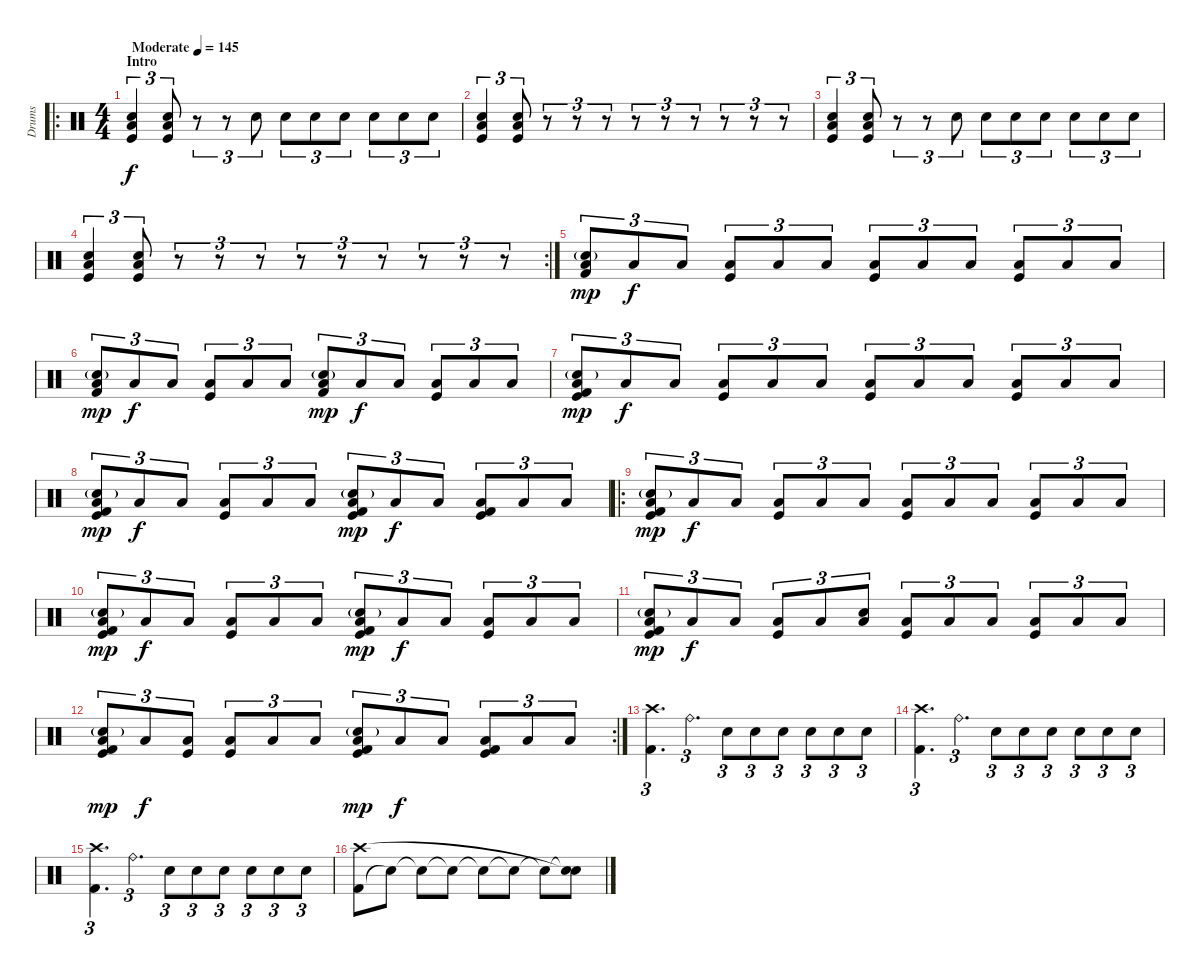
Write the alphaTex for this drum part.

\track ("Drums" "Drums") {instrument percussion}
\staff {score}
\articulation defaults
\ro
\ts (4 4)
\section ("" "Intro")
\tempo (145 "Moderate")
\clef neutral
\ks c
("Kick (hit)" "Low Floor Tom (hit)" "Electric Snare (hit)").4{tu (3 2) dy f} ("Kick (hit)" "Low Floor Tom (hit)" "Electric Snare (hit)").8{tu (3 2)} r.8{tu (3 2)} r.8{tu (3 2)} "Electric Snare (hit)".8{tu (3 2)} "Electric Snare (hit)".8{tu (3 2)} "Electric Snare (hit)".8{tu (3 2)} "Electric Snare (hit)".8{tu (3 2)} "Electric Snare (hit)".8{tu (3 2)} "Electric Snare (hit)".8{tu (3 2)} "Electric Snare (hit)".8{tu (3 2)} |
("Kick (hit)" "Low Floor Tom (hit)" "Electric Snare (hit)").4{tu (3 2)} ("Kick (hit)" "Low Floor Tom (hit)" "Electric Snare (hit)").8{tu (3 2)} r.8{tu (3 2)} r.8{tu (3 2)} r.8{tu (3 2)} r.8{tu (3 2)} r.8{tu (3 2)} r.8{tu (3 2)} r.8{tu (3 2)} r.8{tu (3 2)} r.8{tu (3 2)} |
("Kick (hit)" "Low Floor Tom (hit)" "Electric Snare (hit)").4{tu (3 2)} ("Kick (hit)" "Low Floor Tom (hit)" "Electric Snare (hit)").8{tu (3 2)} r.8{tu (3 2)} r.8{tu (3 2)} "Electric Snare (hit)".8{tu (3 2)} "Electric Snare (hit)".8{tu (3 2)} "Electric Snare (hit)".8{tu (3 2)} "Electric Snare (hit)".8{tu (3 2)} "Electric Snare (hit)".8{tu (3 2)} "Electric Snare (hit)".8{tu (3 2)} "Electric Snare (hit)".8{tu (3 2)} |
\rc 2
("Kick (hit)" "Low Floor Tom (hit)" "Electric Snare (hit)").4{tu (3 2)} ("Kick (hit)" "Low Floor Tom (hit)" "Electric Snare (hit)").8{tu (3 2)} r.8{tu (3 2)} r.8{tu (3 2)} r.8{tu (3 2)} r.8{tu (3 2)} r.8{tu (3 2)} r.8{tu (3 2)} r.8{tu (3 2)} r.8{tu (3 2)} r.8{tu (3 2)} |
("Snare (hit) 2"{g} "Kick (hit) 2" "Low Floor Tom (hit)").8{tu (3 2) dy mp} "Low Floor Tom (hit)".8{tu (3 2) dy f} "Low Floor Tom (hit)".8{tu (3 2)} ("Kick (hit)" "Low Floor Tom (hit)").8{tu (3 2)} "Low Floor Tom (hit)".8{tu (3 2)} "Low Floor Tom (hit)".8{tu (3 2)} ("Kick (hit)" "Low Floor Tom (hit)").8{tu (3 2)} "Low Floor Tom (hit)".8{tu (3 2)} "Low Floor Tom (hit)".8{tu (3 2)} ("Kick (hit)" "Low Floor Tom (hit)").8{tu (3 2)} "Low Floor Tom (hit)".8{tu (3 2)} "Low Floor Tom (hit)".8{tu (3 2)} |
("Snare (hit) 2"{g} "Kick (hit) 2" "Low Floor Tom (hit)").8{tu (3 2) dy mp} "Low Floor Tom (hit)".8{tu (3 2) dy f} "Low Floor Tom (hit)".8{tu (3 2)} ("Kick (hit)" "Low Floor Tom (hit)").8{tu (3 2)} "Low Floor Tom (hit)".8{tu (3 2)} "Low Floor Tom (hit)".8{tu (3 2)} ("Snare (hit) 2"{g} "Kick (hit) 2" "Low Floor Tom (hit)").8{tu (3 2) dy mp} "Low Floor Tom (hit)".8{tu (3 2) dy f} "Low Floor Tom (hit)".8{tu (3 2)} ("Kick (hit)" "Low Floor Tom (hit)").8{tu (3 2)} "Low Floor Tom (hit)".8{tu (3 2)} "Low Floor Tom (hit)".8{tu (3 2)} |
("Kick (hit)" "Snare (hit) 2"{g} "Kick (hit) 2" "Low Floor Tom (hit)").8{tu (3 2) dy mp} "Low Floor Tom (hit)".8{tu (3 2) dy f} "Low Floor Tom (hit)".8{tu (3 2)} ("Kick (hit)" "Low Floor Tom (hit)").8{tu (3 2)} "Low Floor Tom (hit)".8{tu (3 2)} "Low Floor Tom (hit)".8{tu (3 2)} ("Kick (hit)" "Low Floor Tom (hit)").8{tu (3 2)} "Low Floor Tom (hit)".8{tu (3 2)} "Low Floor Tom (hit)".8{tu (3 2)} ("Kick (hit)" "Low Floor Tom (hit)").8{tu (3 2)} "Low Floor Tom (hit)".8{tu (3 2)} "Low Floor Tom (hit)".8{tu (3 2)} |
("Kick (hit)" "Snare (hit) 2"{g} "Kick (hit) 2" "Low Floor Tom (hit)").8{tu (3 2) dy mp} "Low Floor Tom (hit)".8{tu (3 2) dy f} "Low Floor Tom (hit)".8{tu (3 2)} ("Kick (hit)" "Low Floor Tom (hit)").8{tu (3 2)} "Low Floor Tom (hit)".8{tu (3 2)} "Low Floor Tom (hit)".8{tu (3 2)} ("Kick (hit)" "Snare (hit) 2"{g} "Kick (hit) 2" "Low Floor Tom (hit)").8{tu (3 2) dy mp} "Low Floor Tom (hit)".8{tu (3 2) dy f} "Low Floor Tom (hit)".8{tu (3 2)} ("Kick (hit)" "Kick (hit) 2" "Low Floor Tom (hit)").8{tu (3 2)} "Low Floor Tom (hit)".8{tu (3 2)} "Low Floor Tom (hit)".8{tu (3 2)} |
\ro
("Kick (hit)" "Snare (hit) 2"{g} "Kick (hit) 2" "Low Floor Tom (hit)").8{tu (3 2) dy mp} "Low Floor Tom (hit)".8{tu (3 2) dy f} "Low Floor Tom (hit)".8{tu (3 2)} ("Kick (hit)" "Low Floor Tom (hit)").8{tu (3 2)} "Low Floor Tom (hit)".8{tu (3 2)} "Low Floor Tom (hit)".8{tu (3 2)} ("Kick (hit)" "Low Floor Tom (hit)").8{tu (3 2)} "Low Floor Tom (hit)".8{tu (3 2)} "Low Floor Tom (hit)".8{tu (3 2)} ("Kick (hit)" "Low Floor Tom (hit)").8{tu (3 2)} "Low Floor Tom (hit)".8{tu (3 2)} "Low Floor Tom (hit)".8{tu (3 2)} |
("Kick (hit)" "Snare (hit) 2"{g} "Kick (hit) 2" "Low Floor Tom (hit)").8{tu (3 2) dy mp} "Low Floor Tom (hit)".8{tu (3 2) dy f} "Low Floor Tom (hit)".8{tu (3 2)} ("Kick (hit)" "Low Floor Tom (hit)").8{tu (3 2)} "Low Floor Tom (hit)".8{tu (3 2)} "Low Floor Tom (hit)".8{tu (3 2)} ("Kick (hit)" "Snare (hit) 2"{g} "Kick (hit) 2" "Low Floor Tom (hit)").8{tu (3 2) dy mp} "Low Floor Tom (hit)".8{tu (3 2) dy f} "Low Floor Tom (hit)".8{tu (3 2)} ("Kick (hit)" "Low Floor Tom (hit)").8{tu (3 2)} "Low Floor Tom (hit)".8{tu (3 2)} "Low Floor Tom (hit)".8{tu (3 2)} |
("Kick (hit)" "Snare (hit) 2"{g} "Kick (hit) 2" "Low Floor Tom (hit)").8{tu (3 2) dy mp} "Low Floor Tom (hit)".8{tu (3 2) dy f} "Low Floor Tom (hit)".8{tu (3 2)} ("Kick (hit)" "Low Floor Tom (hit)").8{tu (3 2)} "Low Floor Tom (hit)".8{tu (3 2)} ("Snare (hit)" "Low Floor Tom (hit)").8{tu (3 2)} ("Kick (hit)" "Low Floor Tom (hit)").8{tu (3 2)} "Low Floor Tom (hit)".8{tu (3 2)} "Low Floor Tom (hit)".8{tu (3 2)} ("Kick (hit)" "Low Floor Tom (hit)").8{tu (3 2)} "Low Floor Tom (hit)".8{tu (3 2)} "Low Floor Tom (hit)".8{tu (3 2)} |
\rc 2
("Kick (hit)" "Snare (hit) 2"{g} "Kick (hit) 2" "Low Floor Tom (hit)").8{tu (3 2) dy mp} "Low Floor Tom (hit)".8{tu (3 2) dy f} ("Kick (hit)" "Low Floor Tom (hit)").8{tu (3 2)} ("Kick (hit)" "Low Floor Tom (hit)").8{tu (3 2)} "Low Floor Tom (hit)".8{tu (3 2)} "Low Floor Tom (hit)".8{tu (3 2)} ("Kick (hit)" "Snare (hit) 2"{g} "Kick (hit) 2" "Low Floor Tom (hit)").8{tu (3 2) dy mp} "Low Floor Tom (hit)".8{tu (3 2) dy f} "Low Floor Tom (hit)".8{tu (3 2)} ("Kick (hit)" "Kick (hit) 2" "Low Floor Tom (hit)").8{tu (3 2)} "Low Floor Tom (hit)".8{tu (3 2)} "Low Floor Tom (hit)".8{tu (3 2)} |
("Crash high (hit)" "Kick (hit) 2").4{d tu (3 2)} "Ride (bell)".4{d tu (3 2)} "Electric Snare (hit)".8{tu (3 2)} "Electric Snare (hit)".8{tu (3 2)} "Electric Snare (hit)".8{tu (3 2)} "Electric Snare (hit)".8{tu (3 2)} "Electric Snare (hit)".8{tu (3 2)} "Electric Snare (hit)".8{tu (3 2)} |
("Crash high (hit)" "Kick (hit) 2").4{d tu (3 2)} "Ride (bell)".4{d tu (3 2)} "Electric Snare (hit)".8{tu (3 2)} "Electric Snare (hit)".8{tu (3 2)} "Electric Snare (hit)".8{tu (3 2)} "Electric Snare (hit)".8{tu (3 2)} "Electric Snare (hit)".8{tu (3 2)} "Electric Snare (hit)".8{tu (3 2)} |
("Crash high (hit)" "Kick (hit) 2").4{d tu (3 2)} "Ride (bell)".4{d tu (3 2)} "Electric Snare (hit)".8{tu (3 2)} "Electric Snare (hit)".8{tu (3 2)} "Electric Snare (hit)".8{tu (3 2)} "Electric Snare (hit)".8{tu (3 2)} "Electric Snare (hit)".8{tu (3 2)} "Electric Snare (hit)".8{tu (3 2)} |
("Kick (hit) 2" "Crash high (hit)").8 "Snare (hit)"{t}.8 "Snare (hit)"{t}.8 "Snare (hit)"{t}.8 "Snare (hit)"{t}.8 "Snare (hit)"{t}.8 "Snare (hit)"{t}.8 ("Snare (hit)"{t} "Snare (hit)"{t}).8
